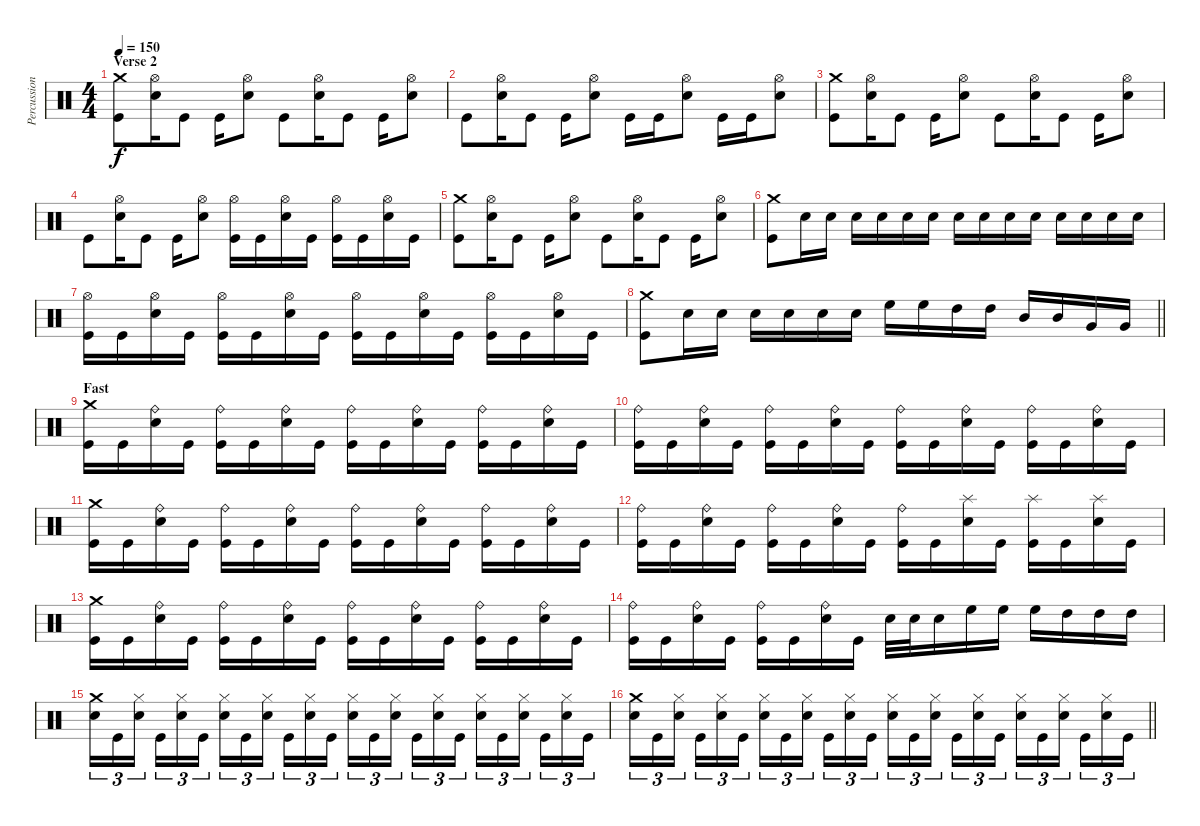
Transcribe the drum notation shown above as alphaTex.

\track ("Percussion" "Percussion") {instrument percussion}
\staff {score}
\articulation defaults
\ts (4 4)
\section ("" "Verse 2")
\tempo 150
\clef neutral
\ks c
("Crash medium (hit)" "Kick (hit)").8{dy f} ("Hi-Hat (open)" "Snare (hit) 2").16 "Kick (hit)".8 "Kick (hit)".16 ("Hi-Hat (open)" "Snare (hit) 2").8 "Kick (hit)".8 ("Hi-Hat (open)" "Snare (hit) 2").16 "Kick (hit)".8 "Kick (hit)".16 ("Hi-Hat (open)" "Snare (hit) 2").8 |
"Kick (hit)".8 ("Hi-Hat (open)" "Snare (hit) 2").16 "Kick (hit)".8 "Kick (hit)".16 ("Hi-Hat (open)" "Snare (hit) 2").8 "Kick (hit)".16 "Kick (hit)".16 ("Hi-Hat (open)" "Snare (hit) 2").8 "Kick (hit)".16 "Kick (hit)".16 ("Hi-Hat (open)" "Snare (hit) 2").8 |
("Crash medium (hit)" "Kick (hit)").8 ("Hi-Hat (open)" "Snare (hit) 2").16 "Kick (hit)".8 "Kick (hit)".16 ("Hi-Hat (open)" "Snare (hit) 2").8 "Kick (hit)".8 ("Hi-Hat (open)" "Snare (hit) 2").16 "Kick (hit)".8 "Kick (hit)".16 ("Hi-Hat (open)" "Snare (hit) 2").8 |
"Kick (hit)".8 ("Hi-Hat (open)" "Snare (hit) 2").16 "Kick (hit)".8 "Kick (hit)".16 ("Hi-Hat (open)" "Snare (hit) 2").8 ("Hi-Hat (open)" "Kick (hit)").16 "Kick (hit)".16 ("Hi-Hat (open)" "Snare (hit) 2").16 "Kick (hit)".16 ("Hi-Hat (open)" "Kick (hit)").16 "Kick (hit)".16 ("Hi-Hat (open)" "Snare (hit) 2").16 "Kick (hit)".16 |
("Crash medium (hit)" "Kick (hit)").8 ("Hi-Hat (open)" "Snare (hit) 2").16 "Kick (hit)".8 "Kick (hit)".16 ("Hi-Hat (open)" "Snare (hit) 2").8 "Kick (hit)".8 ("Hi-Hat (open)" "Snare (hit) 2").16 "Kick (hit)".8 "Kick (hit)".16 ("Hi-Hat (open)" "Snare (hit) 2").8 |
("Crash medium (hit)" "Kick (hit)").8 "Snare (hit) 2".16 "Snare (hit) 2".16 "Snare (hit) 2".16 "Snare (hit) 2".16 "Snare (hit) 2".16 "Snare (hit) 2".16 "Snare (hit) 2".16 "Snare (hit) 2".16 "Snare (hit) 2".16 "Snare (hit) 2".16 "Snare (hit) 2".16 "Snare (hit) 2".16 "Snare (hit) 2".16 "Snare (hit) 2".16 |
("Hi-Hat (open)" "Kick (hit)").16 "Kick (hit)".16 ("Hi-Hat (open)" "Snare (hit) 2").16 "Kick (hit)".16 ("Hi-Hat (open)" "Kick (hit)").16 "Kick (hit)".16 ("Hi-Hat (open)" "Snare (hit) 2").16 "Kick (hit)".16 ("Hi-Hat (open)" "Kick (hit)").16 "Kick (hit)".16 ("Hi-Hat (open)" "Snare (hit) 2").16 "Kick (hit)".16 ("Hi-Hat (open)" "Kick (hit)").16 "Kick (hit)".16 ("Hi-Hat (open)" "Snare (hit) 2").16 "Kick (hit)".16 |
\barLineRight lightlight
("Crash medium (hit)" "Kick (hit)").8 "Snare (hit) 2".16 "Snare (hit) 2".16 "Snare (hit) 2".16 "Snare (hit) 2".16 "Snare (hit) 2".16 "Snare (hit) 2".16 "High Floor Tom (hit)".16 "High Floor Tom (hit)".16 "High Tom (hit)".16 "High Tom (hit)".16 "Mid Tom (hit)".16 "Mid Tom (hit)".16 "Very Low Tom (hit)".16 "Very Low Tom (hit)".16 |
\section ("" "Fast")
("Crash medium (hit)" "Kick (hit)").16 "Kick (hit)".16 ("Ride (bell)" "Snare (hit) 2").16 "Kick (hit)".16 ("Ride (bell)" "Kick (hit)").16 "Kick (hit)".16 ("Ride (bell)" "Snare (hit) 2").16 "Kick (hit)".16 ("Ride (bell)" "Kick (hit)").16 "Kick (hit)".16 ("Ride (bell)" "Snare (hit) 2").16 "Kick (hit)".16 ("Ride (bell)" "Kick (hit)").16 "Kick (hit)".16 ("Ride (bell)" "Snare (hit) 2").16 "Kick (hit)".16 |
("Ride (bell)" "Kick (hit)").16 "Kick (hit)".16 ("Ride (bell)" "Snare (hit) 2").16 "Kick (hit)".16 ("Ride (bell)" "Kick (hit)").16 "Kick (hit)".16 ("Ride (bell)" "Snare (hit) 2").16 "Kick (hit)".16 ("Ride (bell)" "Kick (hit)").16 "Kick (hit)".16 ("Ride (bell)" "Snare (hit) 2").16 "Kick (hit)".16 ("Ride (bell)" "Kick (hit)").16 "Kick (hit)".16 ("Ride (bell)" "Snare (hit) 2").16 "Kick (hit)".16 |
("Crash medium (hit)" "Kick (hit)").16 "Kick (hit)".16 ("Ride (bell)" "Snare (hit) 2").16 "Kick (hit)".16 ("Ride (bell)" "Kick (hit)").16 "Kick (hit)".16 ("Ride (bell)" "Snare (hit) 2").16 "Kick (hit)".16 ("Ride (bell)" "Kick (hit)").16 "Kick (hit)".16 ("Ride (bell)" "Snare (hit) 2").16 "Kick (hit)".16 ("Ride (bell)" "Kick (hit)").16 "Kick (hit)".16 ("Ride (bell)" "Snare (hit) 2").16 "Kick (hit)".16 |
("Ride (bell)" "Kick (hit)").16 "Kick (hit)".16 ("Ride (bell)" "Snare (hit) 2").16 "Kick (hit)".16 ("Ride (bell)" "Kick (hit)").16 "Kick (hit)".16 ("Ride (bell)" "Snare (hit) 2").16 "Kick (hit)".16 ("Ride (bell)" "Kick (hit)").16 "Kick (hit)".16 ("Splash (hit)" "Snare (hit) 2").16 "Kick (hit)".16 ("Splash (hit)" "Kick (hit)").16 "Kick (hit)".16 ("Splash (hit)" "Snare (hit) 2").16 "Kick (hit)".16 |
("Crash medium (hit)" "Kick (hit)").16 "Kick (hit)".16 ("Ride (bell)" "Snare (hit) 2").16 "Kick (hit)".16 ("Ride (bell)" "Kick (hit)").16 "Kick (hit)".16 ("Ride (bell)" "Snare (hit) 2").16 "Kick (hit)".16 ("Ride (bell)" "Kick (hit)").16 "Kick (hit)".16 ("Ride (bell)" "Snare (hit) 2").16 "Kick (hit)".16 ("Ride (bell)" "Kick (hit)").16 "Kick (hit)".16 ("Ride (bell)" "Snare (hit) 2").16 "Kick (hit)".16 |
("Ride (bell)" "Kick (hit)").16 "Kick (hit)".16 ("Ride (bell)" "Snare (hit) 2").16 "Kick (hit)".16 ("Ride (bell)" "Kick (hit)").16 "Kick (hit)".16 ("Ride (bell)" "Snare (hit) 2").16 "Kick (hit)".16 "Snare (hit) 2".32 "Snare (hit) 2".32 "Snare (hit) 2".16 "High Floor Tom (hit)".16 "High Floor Tom (hit)".16 "High Floor Tom (hit)".16 "High Tom (hit)".16 "High Tom (hit)".16 "High Tom (hit)".16 |
("Crash medium (hit)" "Snare (hit) 2").16{tu (3 2)} "Kick (hit)".16{tu (3 2)} ("Hi-Hat (closed)" "Snare (hit) 2").16{tu (3 2) beam splitsecondary} "Kick (hit)".16{tu (3 2)} ("Hi-Hat (closed)" "Snare (hit) 2").16{tu (3 2)} "Kick (hit)".16{tu (3 2)} ("Hi-Hat (closed)" "Snare (hit) 2").16{tu (3 2)} "Kick (hit)".16{tu (3 2)} ("Hi-Hat (closed)" "Snare (hit) 2").16{tu (3 2) beam splitsecondary} "Kick (hit)".16{tu (3 2)} ("Hi-Hat (closed)" "Snare (hit) 2").16{tu (3 2)} "Kick (hit)".16{tu (3 2)} ("Hi-Hat (closed)" "Snare (hit) 2").16{tu (3 2)} "Kick (hit)".16{tu (3 2)} ("Hi-Hat (closed)" "Snare (hit) 2").16{tu (3 2) beam splitsecondary} "Kick (hit)".16{tu (3 2)} ("Hi-Hat (closed)" "Snare (hit) 2").16{tu (3 2)} "Kick (hit)".16{tu (3 2)} ("Hi-Hat (closed)" "Snare (hit) 2").16{tu (3 2)} "Kick (hit)".16{tu (3 2)} ("Hi-Hat (closed)" "Snare (hit) 2").16{tu (3 2) beam splitsecondary} "Kick (hit)".16{tu (3 2)} ("Hi-Hat (closed)" "Snare (hit) 2").16{tu (3 2)} "Kick (hit)".16{tu (3 2)} |
\barLineRight lightlight
("Crash medium (hit)" "Snare (hit) 2").16{tu (3 2)} "Kick (hit)".16{tu (3 2)} ("Hi-Hat (closed)" "Snare (hit) 2").16{tu (3 2) beam splitsecondary} "Kick (hit)".16{tu (3 2)} ("Hi-Hat (closed)" "Snare (hit) 2").16{tu (3 2)} "Kick (hit)".16{tu (3 2)} ("Hi-Hat (closed)" "Snare (hit) 2").16{tu (3 2)} "Kick (hit)".16{tu (3 2)} ("Hi-Hat (closed)" "Snare (hit) 2").16{tu (3 2) beam splitsecondary} "Kick (hit)".16{tu (3 2)} ("Hi-Hat (closed)" "Snare (hit) 2").16{tu (3 2)} "Kick (hit)".16{tu (3 2)} ("Hi-Hat (closed)" "Snare (hit) 2").16{tu (3 2)} "Kick (hit)".16{tu (3 2)} ("Hi-Hat (closed)" "Snare (hit) 2").16{tu (3 2) beam splitsecondary} "Kick (hit)".16{tu (3 2)} ("Hi-Hat (closed)" "Snare (hit) 2").16{tu (3 2)} "Kick (hit)".16{tu (3 2)} ("Hi-Hat (closed)" "Snare (hit) 2").16{tu (3 2)} "Kick (hit)".16{tu (3 2)} ("Hi-Hat (closed)" "Snare (hit) 2").16{tu (3 2) beam splitsecondary} "Kick (hit)".16{tu (3 2)} ("Hi-Hat (closed)" "Snare (hit) 2").16{tu (3 2)} "Kick (hit)".16{tu (3 2)}
